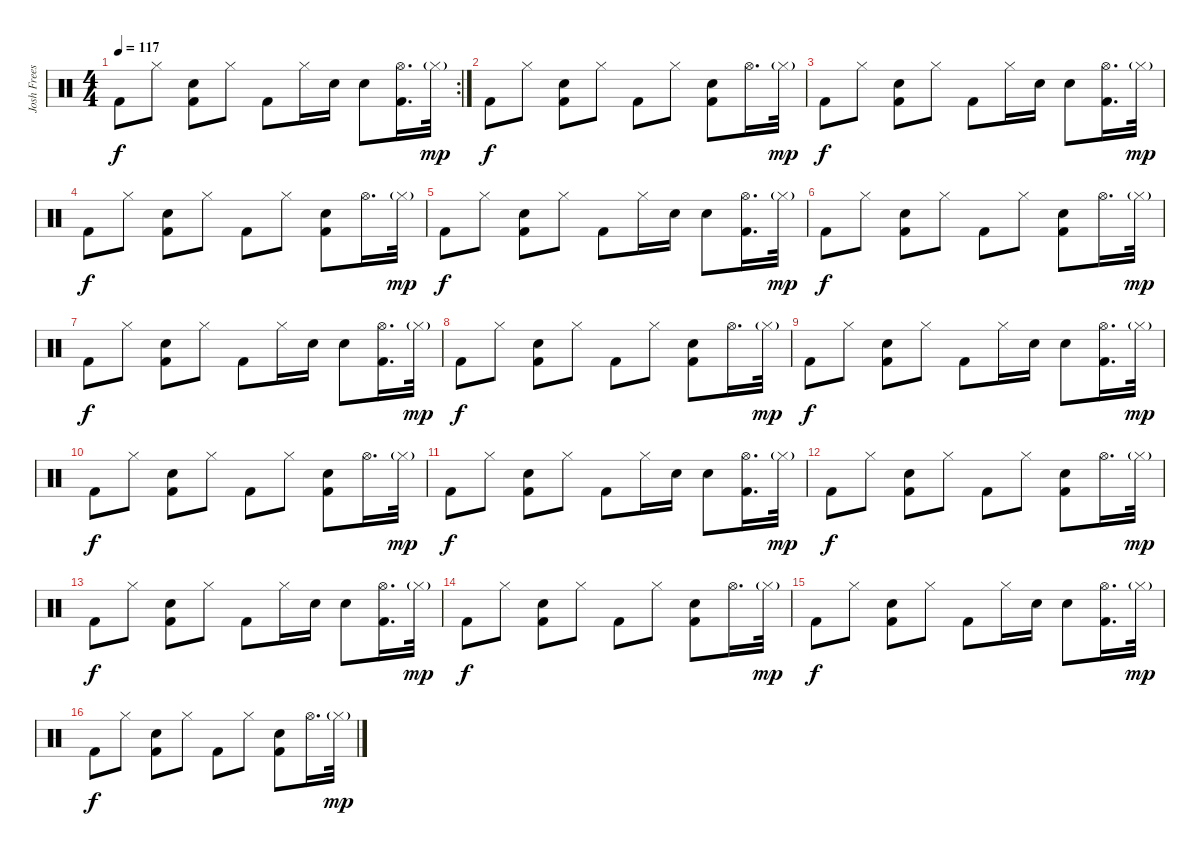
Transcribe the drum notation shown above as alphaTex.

\track ("Josh Freese" "Josh Frees") {instrument percussion}
\staff {score}
\articulation defaults
\rc 2
\ts (4 4)
\tempo 117
\clef neutral
\ks c "Kick (hit) 2".8{dy f} "Hi-Hat (closed)".8
("Electric Snare (hit)" "Kick (hit) 2").8 "Hi-Hat (closed)".8 "Kick (hit) 2".8 "Hi-Hat (closed)".16 "Electric Snare (hit)".16 "Electric Snare (hit)".8 ("Hi-Hat (open)" "Kick (hit) 2").16{d} "Hi-Hat (closed)"{g}.32{dy mp} |
"Kick (hit) 2".8{dy f} "Hi-Hat (closed)".8 ("Electric Snare (hit)" "Kick (hit) 2").8 "Hi-Hat (closed)".8 "Kick (hit) 2".8 "Hi-Hat (closed)".8 ("Electric Snare (hit)" "Kick (hit) 2").8 "Hi-Hat (open)".16{d} "Hi-Hat (closed)"{g}.32{dy mp} |
"Kick (hit) 2".8{dy f} "Hi-Hat (closed)".8 ("Electric Snare (hit)" "Kick (hit) 2").8 "Hi-Hat (closed)".8 "Kick (hit) 2".8 "Hi-Hat (closed)".16 "Electric Snare (hit)".16 "Electric Snare (hit)".8 ("Hi-Hat (open)" "Kick (hit) 2").16{d} "Hi-Hat (closed)"{g}.32{dy mp} |
"Kick (hit) 2".8{dy f} "Hi-Hat (closed)".8 ("Electric Snare (hit)" "Kick (hit) 2").8 "Hi-Hat (closed)".8 "Kick (hit) 2".8 "Hi-Hat (closed)".8 ("Electric Snare (hit)" "Kick (hit) 2").8 "Hi-Hat (open)".16{d} "Hi-Hat (closed)"{g}.32{dy mp} |
"Kick (hit) 2".8{dy f} "Hi-Hat (closed)".8 ("Electric Snare (hit)" "Kick (hit) 2").8 "Hi-Hat (closed)".8 "Kick (hit) 2".8 "Hi-Hat (closed)".16 "Electric Snare (hit)".16 "Electric Snare (hit)".8 ("Hi-Hat (open)" "Kick (hit) 2").16{d} "Hi-Hat (closed)"{g}.32{dy mp} |
"Kick (hit) 2".8{dy f} "Hi-Hat (closed)".8 ("Electric Snare (hit)" "Kick (hit) 2").8 "Hi-Hat (closed)".8 "Kick (hit) 2".8 "Hi-Hat (closed)".8 ("Electric Snare (hit)" "Kick (hit) 2").8 "Hi-Hat (open)".16{d} "Hi-Hat (closed)"{g}.32{dy mp} |
"Kick (hit) 2".8{dy f} "Hi-Hat (closed)".8 ("Electric Snare (hit)" "Kick (hit) 2").8 "Hi-Hat (closed)".8 "Kick (hit) 2".8 "Hi-Hat (closed)".16 "Electric Snare (hit)".16 "Electric Snare (hit)".8 ("Hi-Hat (open)" "Kick (hit) 2").16{d} "Hi-Hat (closed)"{g}.32{dy mp} |
"Kick (hit) 2".8{dy f} "Hi-Hat (closed)".8 ("Electric Snare (hit)" "Kick (hit) 2").8 "Hi-Hat (closed)".8 "Kick (hit) 2".8 "Hi-Hat (closed)".8 ("Electric Snare (hit)" "Kick (hit) 2").8 "Hi-Hat (open)".16{d} "Hi-Hat (closed)"{g}.32{dy mp} |
"Kick (hit) 2".8{dy f} "Hi-Hat (closed)".8 ("Electric Snare (hit)" "Kick (hit) 2").8 "Hi-Hat (closed)".8 "Kick (hit) 2".8 "Hi-Hat (closed)".16 "Electric Snare (hit)".16 "Electric Snare (hit)".8 ("Hi-Hat (open)" "Kick (hit) 2").16{d} "Hi-Hat (closed)"{g}.32{dy mp} |
"Kick (hit) 2".8{dy f} "Hi-Hat (closed)".8 ("Electric Snare (hit)" "Kick (hit) 2").8 "Hi-Hat (closed)".8 "Kick (hit) 2".8 "Hi-Hat (closed)".8 ("Electric Snare (hit)" "Kick (hit) 2").8 "Hi-Hat (open)".16{d} "Hi-Hat (closed)"{g}.32{dy mp} |
"Kick (hit) 2".8{dy f} "Hi-Hat (closed)".8 ("Electric Snare (hit)" "Kick (hit) 2").8 "Hi-Hat (closed)".8 "Kick (hit) 2".8 "Hi-Hat (closed)".16 "Electric Snare (hit)".16 "Electric Snare (hit)".8 ("Hi-Hat (open)" "Kick (hit) 2").16{d} "Hi-Hat (closed)"{g}.32{dy mp} |
"Kick (hit) 2".8{dy f} "Hi-Hat (closed)".8 ("Electric Snare (hit)" "Kick (hit) 2").8 "Hi-Hat (closed)".8 "Kick (hit) 2".8 "Hi-Hat (closed)".8 ("Electric Snare (hit)" "Kick (hit) 2").8 "Hi-Hat (open)".16{d} "Hi-Hat (closed)"{g}.32{dy mp} |
"Kick (hit) 2".8{dy f} "Hi-Hat (closed)".8 ("Electric Snare (hit)" "Kick (hit) 2").8 "Hi-Hat (closed)".8 "Kick (hit) 2".8 "Hi-Hat (closed)".16 "Electric Snare (hit)".16 "Electric Snare (hit)".8 ("Hi-Hat (open)" "Kick (hit) 2").16{d} "Hi-Hat (closed)"{g}.32{dy mp} |
"Kick (hit) 2".8{dy f} "Hi-Hat (closed)".8 ("Electric Snare (hit)" "Kick (hit) 2").8 "Hi-Hat (closed)".8 "Kick (hit) 2".8 "Hi-Hat (closed)".8 ("Electric Snare (hit)" "Kick (hit) 2").8 "Hi-Hat (open)".16{d} "Hi-Hat (closed)"{g}.32{dy mp} |
"Kick (hit) 2".8{dy f} "Hi-Hat (closed)".8 ("Electric Snare (hit)" "Kick (hit) 2").8 "Hi-Hat (closed)".8 "Kick (hit) 2".8 "Hi-Hat (closed)".16 "Electric Snare (hit)".16 "Electric Snare (hit)".8 ("Hi-Hat (open)" "Kick (hit) 2").16{d} "Hi-Hat (closed)"{g}.32{dy mp} |
"Kick (hit) 2".8{dy f} "Hi-Hat (closed)".8 ("Electric Snare (hit)" "Kick (hit) 2").8 "Hi-Hat (closed)".8 "Kick (hit) 2".8 "Hi-Hat (closed)".8 ("Electric Snare (hit)" "Kick (hit) 2").8 "Hi-Hat (open)".16{d} "Hi-Hat (closed)"{g}.32{dy mp}
